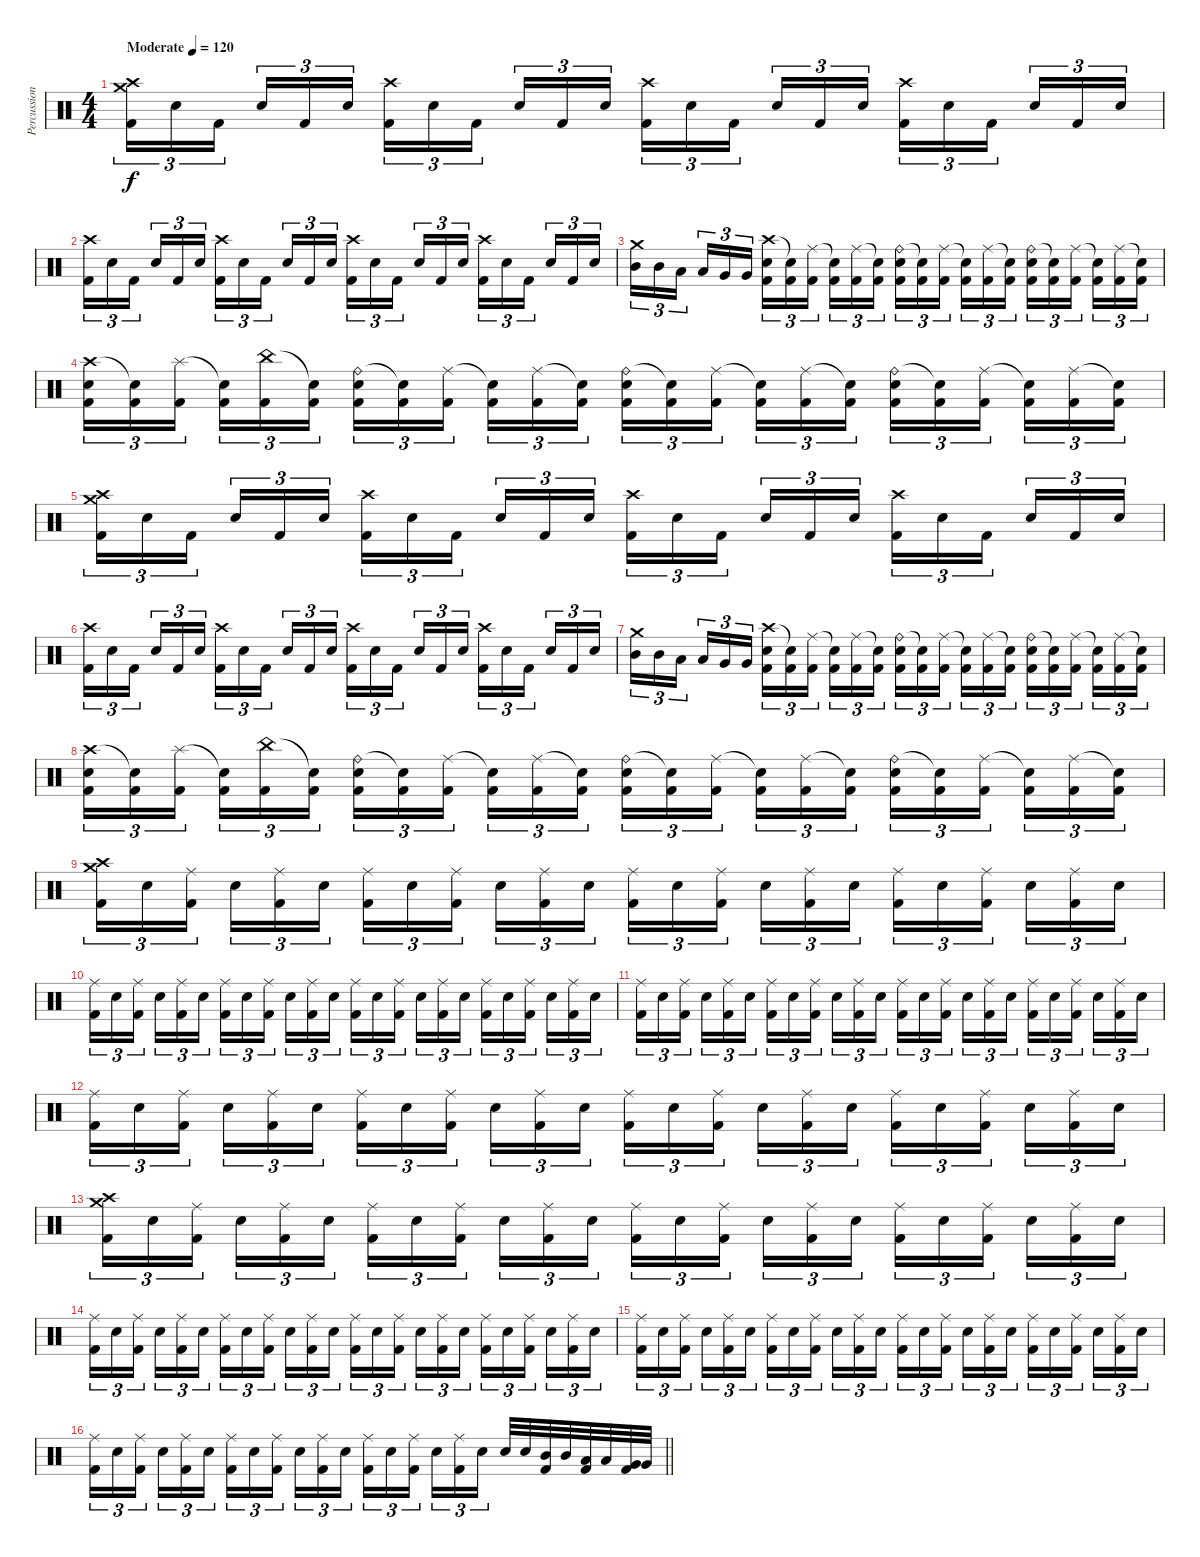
\track ("Percussion" "Percussion") {instrument percussion}
\staff {score}
\articulation defaults
\ts (4 4)
\tempo (120 "Moderate")
\clef neutral
\ks c
("Crash medium (hit)" "Crash high (hit)" "Kick (hit) 2").16{tu (3 2) dy f} "Electric Snare (hit)".16{tu (3 2)} "Kick (hit) 2".16{tu (3 2) beam splitsecondary} "Electric Snare (hit)".16{tu (3 2)} "Kick (hit) 2".16{tu (3 2)} "Electric Snare (hit)".16{tu (3 2)} ("Crash high (hit)" "Kick (hit) 2").16{tu (3 2)} "Electric Snare (hit)".16{tu (3 2)} "Kick (hit) 2".16{tu (3 2) beam splitsecondary} "Electric Snare (hit)".16{tu (3 2)} "Kick (hit) 2".16{tu (3 2)} "Electric Snare (hit)".16{tu (3 2)} ("Crash high (hit)" "Kick (hit) 2").16{tu (3 2)} "Electric Snare (hit)".16{tu (3 2)} "Kick (hit) 2".16{tu (3 2) beam splitsecondary} "Electric Snare (hit)".16{tu (3 2)} "Kick (hit) 2".16{tu (3 2)} "Electric Snare (hit)".16{tu (3 2)} ("Crash high (hit)" "Kick (hit) 2").16{tu (3 2)} "Electric Snare (hit)".16{tu (3 2)} "Kick (hit) 2".16{tu (3 2) beam splitsecondary} "Electric Snare (hit)".16{tu (3 2)} "Kick (hit) 2".16{tu (3 2)} "Electric Snare (hit)".16{tu (3 2)} |
("Crash high (hit)" "Kick (hit) 2").16{tu (3 2)} "Electric Snare (hit)".16{tu (3 2)} "Kick (hit) 2".16{tu (3 2) beam splitsecondary} "Electric Snare (hit)".16{tu (3 2)} "Kick (hit) 2".16{tu (3 2)} "Electric Snare (hit)".16{tu (3 2)} ("Crash high (hit)" "Kick (hit) 2").16{tu (3 2)} "Electric Snare (hit)".16{tu (3 2)} "Kick (hit) 2".16{tu (3 2) beam splitsecondary} "Electric Snare (hit)".16{tu (3 2)} "Kick (hit) 2".16{tu (3 2)} "Electric Snare (hit)".16{tu (3 2)} ("Crash high (hit)" "Kick (hit) 2").16{tu (3 2)} "Electric Snare (hit)".16{tu (3 2)} "Kick (hit) 2".16{tu (3 2) beam splitsecondary} "Electric Snare (hit)".16{tu (3 2)} "Kick (hit) 2".16{tu (3 2)} "Electric Snare (hit)".16{tu (3 2)} ("Crash high (hit)" "Kick (hit) 2").16{tu (3 2)} "Electric Snare (hit)".16{tu (3 2)} "Kick (hit) 2".16{tu (3 2) beam splitsecondary} "Electric Snare (hit)".16{tu (3 2)} "Kick (hit) 2".16{tu (3 2)} "Electric Snare (hit)".16{tu (3 2)} |
("Crash medium (hit)" "Mid Tom (hit)").16{tu (3 2)} "Mid Tom (hit)".16{tu (3 2)} "Low Tom (hit)".16{tu (3 2) beam splitsecondary} "Low Tom (hit)".16{tu (3 2)} "Very Low Tom (hit)".16{tu (3 2)} "Very Low Tom (hit)".16{tu (3 2)} ("Crash high (hit)" "Electric Snare (hit)" "Kick (hit) 2").16{tu (3 2)} ("Snare (hit)"{t} "Kick (hit) 2").16{tu (3 2)} ("Ride (middle)" "Kick (hit) 2").16{tu (3 2) beam splitsecondary} ("Snare (hit)"{t} "Kick (hit) 2").16{tu (3 2)} ("Ride (middle)" "Kick (hit) 2").16{tu (3 2)} ("Snare (hit)"{t} "Kick (hit) 2").16{tu (3 2)} ("Ride (bell)" "Electric Snare (hit)" "Kick (hit) 2").16{tu (3 2)} ("Snare (hit)"{t} "Kick (hit) 2").16{tu (3 2)} ("Ride (middle)" "Kick (hit) 2").16{tu (3 2) beam splitsecondary} ("Snare (hit)"{t} "Kick (hit) 2").16{tu (3 2)} ("Ride (middle)" "Kick (hit) 2").16{tu (3 2)} ("Snare (hit)"{t} "Kick (hit) 2").16{tu (3 2)} ("Ride (bell)" "Electric Snare (hit)" "Kick (hit) 2").16{tu (3 2)} ("Snare (hit)"{t} "Kick (hit) 2").16{tu (3 2)} ("Ride (middle)" "Kick (hit) 2").16{tu (3 2) beam splitsecondary} ("Snare (hit)"{t} "Kick (hit) 2").16{tu (3 2)} ("Ride (middle)" "Kick (hit) 2").16{tu (3 2)} ("Snare (hit)"{t} "Kick (hit) 2").16{tu (3 2)} |
("Crash high (hit)" "Electric Snare (hit)" "Kick (hit) 2").16{tu (3 2)} ("Snare (hit)"{t} "Kick (hit) 2").16{tu (3 2)} ("Splash (hit)" "Kick (hit) 2").16{tu (3 2) beam splitsecondary} ("Snare (hit)"{t} "Kick (hit) 2").16{tu (3 2)} ("China (hit)" "Kick (hit) 2").16{tu (3 2)} ("Snare (hit)"{t} "Kick (hit) 2").16{tu (3 2)} ("Ride (bell)" "Electric Snare (hit)" "Kick (hit) 2").16{tu (3 2)} ("Snare (hit)"{t} "Kick (hit) 2").16{tu (3 2)} ("Ride (middle)" "Kick (hit) 2").16{tu (3 2) beam splitsecondary} ("Snare (hit)"{t} "Kick (hit) 2").16{tu (3 2)} ("Ride (middle)" "Kick (hit) 2").16{tu (3 2)} ("Snare (hit)"{t} "Kick (hit) 2").16{tu (3 2)} ("Ride (bell)" "Electric Snare (hit)" "Kick (hit) 2").16{tu (3 2)} ("Snare (hit)"{t} "Kick (hit) 2").16{tu (3 2)} ("Ride (middle)" "Kick (hit) 2").16{tu (3 2) beam splitsecondary} ("Snare (hit)"{t} "Kick (hit) 2").16{tu (3 2)} ("Ride (middle)" "Kick (hit) 2").16{tu (3 2)} ("Snare (hit)"{t} "Kick (hit) 2").16{tu (3 2)} ("Ride (bell)" "Electric Snare (hit)" "Kick (hit) 2").16{tu (3 2)} ("Snare (hit)"{t} "Kick (hit) 2").16{tu (3 2)} ("Ride (middle)" "Kick (hit) 2").16{tu (3 2) beam splitsecondary} ("Snare (hit)"{t} "Kick (hit) 2").16{tu (3 2)} ("Ride (middle)" "Kick (hit) 2").16{tu (3 2)} ("Snare (hit)"{t} "Kick (hit) 2").16{tu (3 2)} |
("Crash medium (hit)" "Crash high (hit)" "Kick (hit) 2").16{tu (3 2)} "Electric Snare (hit)".16{tu (3 2)} "Kick (hit) 2".16{tu (3 2) beam splitsecondary} "Electric Snare (hit)".16{tu (3 2)} "Kick (hit) 2".16{tu (3 2)} "Electric Snare (hit)".16{tu (3 2)} ("Crash high (hit)" "Kick (hit) 2").16{tu (3 2)} "Electric Snare (hit)".16{tu (3 2)} "Kick (hit) 2".16{tu (3 2) beam splitsecondary} "Electric Snare (hit)".16{tu (3 2)} "Kick (hit) 2".16{tu (3 2)} "Electric Snare (hit)".16{tu (3 2)} ("Crash high (hit)" "Kick (hit) 2").16{tu (3 2)} "Electric Snare (hit)".16{tu (3 2)} "Kick (hit) 2".16{tu (3 2) beam splitsecondary} "Electric Snare (hit)".16{tu (3 2)} "Kick (hit) 2".16{tu (3 2)} "Electric Snare (hit)".16{tu (3 2)} ("Crash high (hit)" "Kick (hit) 2").16{tu (3 2)} "Electric Snare (hit)".16{tu (3 2)} "Kick (hit) 2".16{tu (3 2) beam splitsecondary} "Electric Snare (hit)".16{tu (3 2)} "Kick (hit) 2".16{tu (3 2)} "Electric Snare (hit)".16{tu (3 2)} |
("Crash high (hit)" "Kick (hit) 2").16{tu (3 2)} "Electric Snare (hit)".16{tu (3 2)} "Kick (hit) 2".16{tu (3 2) beam splitsecondary} "Electric Snare (hit)".16{tu (3 2)} "Kick (hit) 2".16{tu (3 2)} "Electric Snare (hit)".16{tu (3 2)} ("Crash high (hit)" "Kick (hit) 2").16{tu (3 2)} "Electric Snare (hit)".16{tu (3 2)} "Kick (hit) 2".16{tu (3 2) beam splitsecondary} "Electric Snare (hit)".16{tu (3 2)} "Kick (hit) 2".16{tu (3 2)} "Electric Snare (hit)".16{tu (3 2)} ("Crash high (hit)" "Kick (hit) 2").16{tu (3 2)} "Electric Snare (hit)".16{tu (3 2)} "Kick (hit) 2".16{tu (3 2) beam splitsecondary} "Electric Snare (hit)".16{tu (3 2)} "Kick (hit) 2".16{tu (3 2)} "Electric Snare (hit)".16{tu (3 2)} ("Crash high (hit)" "Kick (hit) 2").16{tu (3 2)} "Electric Snare (hit)".16{tu (3 2)} "Kick (hit) 2".16{tu (3 2) beam splitsecondary} "Electric Snare (hit)".16{tu (3 2)} "Kick (hit) 2".16{tu (3 2)} "Electric Snare (hit)".16{tu (3 2)} |
("Crash medium (hit)" "Mid Tom (hit)").16{tu (3 2)} "Mid Tom (hit)".16{tu (3 2)} "Low Tom (hit)".16{tu (3 2) beam splitsecondary} "Low Tom (hit)".16{tu (3 2)} "Very Low Tom (hit)".16{tu (3 2)} "Very Low Tom (hit)".16{tu (3 2)} ("Crash high (hit)" "Electric Snare (hit)" "Kick (hit) 2").16{tu (3 2)} ("Snare (hit)"{t} "Kick (hit) 2").16{tu (3 2)} ("Ride (middle)" "Kick (hit) 2").16{tu (3 2) beam splitsecondary} ("Snare (hit)"{t} "Kick (hit) 2").16{tu (3 2)} ("Ride (middle)" "Kick (hit) 2").16{tu (3 2)} ("Snare (hit)"{t} "Kick (hit) 2").16{tu (3 2)} ("Ride (bell)" "Electric Snare (hit)" "Kick (hit) 2").16{tu (3 2)} ("Snare (hit)"{t} "Kick (hit) 2").16{tu (3 2)} ("Ride (middle)" "Kick (hit) 2").16{tu (3 2) beam splitsecondary} ("Snare (hit)"{t} "Kick (hit) 2").16{tu (3 2)} ("Ride (middle)" "Kick (hit) 2").16{tu (3 2)} ("Snare (hit)"{t} "Kick (hit) 2").16{tu (3 2)} ("Ride (bell)" "Electric Snare (hit)" "Kick (hit) 2").16{tu (3 2)} ("Snare (hit)"{t} "Kick (hit) 2").16{tu (3 2)} ("Ride (middle)" "Kick (hit) 2").16{tu (3 2) beam splitsecondary} ("Snare (hit)"{t} "Kick (hit) 2").16{tu (3 2)} ("Ride (middle)" "Kick (hit) 2").16{tu (3 2)} ("Snare (hit)"{t} "Kick (hit) 2").16{tu (3 2)} |
("Crash high (hit)" "Electric Snare (hit)" "Kick (hit) 2").16{tu (3 2)} ("Snare (hit)"{t} "Kick (hit) 2").16{tu (3 2)} ("Splash (hit)" "Kick (hit) 2").16{tu (3 2) beam splitsecondary} ("Snare (hit)"{t} "Kick (hit) 2").16{tu (3 2)} ("China (hit)" "Kick (hit) 2").16{tu (3 2)} ("Snare (hit)"{t} "Kick (hit) 2").16{tu (3 2)} ("Ride (bell)" "Electric Snare (hit)" "Kick (hit) 2").16{tu (3 2)} ("Snare (hit)"{t} "Kick (hit) 2").16{tu (3 2)} ("Ride (middle)" "Kick (hit) 2").16{tu (3 2) beam splitsecondary} ("Snare (hit)"{t} "Kick (hit) 2").16{tu (3 2)} ("Ride (middle)" "Kick (hit) 2").16{tu (3 2)} ("Snare (hit)"{t} "Kick (hit) 2").16{tu (3 2)} ("Ride (bell)" "Electric Snare (hit)" "Kick (hit) 2").16{tu (3 2)} ("Snare (hit)"{t} "Kick (hit) 2").16{tu (3 2)} ("Ride (middle)" "Kick (hit) 2").16{tu (3 2) beam splitsecondary} ("Snare (hit)"{t} "Kick (hit) 2").16{tu (3 2)} ("Ride (middle)" "Kick (hit) 2").16{tu (3 2)} ("Snare (hit)"{t} "Kick (hit) 2").16{tu (3 2)} ("Ride (bell)" "Electric Snare (hit)" "Kick (hit) 2").16{tu (3 2)} ("Snare (hit)"{t} "Kick (hit) 2").16{tu (3 2)} ("Ride (middle)" "Kick (hit) 2").16{tu (3 2) beam splitsecondary} ("Snare (hit)"{t} "Kick (hit) 2").16{tu (3 2)} ("Ride (middle)" "Kick (hit) 2").16{tu (3 2)} ("Snare (hit)"{t} "Kick (hit) 2").16{tu (3 2)} |
("Crash medium (hit)" "Crash high (hit)" "Kick (hit) 2").16{tu (3 2)} "Electric Snare (hit)".16{tu (3 2)} ("Ride (middle)" "Kick (hit) 2").16{tu (3 2) beam splitsecondary} "Electric Snare (hit)".16{tu (3 2)} ("Ride (middle)" "Kick (hit) 2").16{tu (3 2)} "Electric Snare (hit)".16{tu (3 2)} ("Ride (middle)" "Kick (hit) 2").16{tu (3 2)} "Electric Snare (hit)".16{tu (3 2)} ("Ride (middle)" "Kick (hit) 2").16{tu (3 2) beam splitsecondary} "Electric Snare (hit)".16{tu (3 2)} ("Ride (middle)" "Kick (hit) 2").16{tu (3 2)} "Electric Snare (hit)".16{tu (3 2)} ("Ride (middle)" "Kick (hit) 2").16{tu (3 2)} "Electric Snare (hit)".16{tu (3 2)} ("Ride (middle)" "Kick (hit) 2").16{tu (3 2) beam splitsecondary} "Electric Snare (hit)".16{tu (3 2)} ("Ride (middle)" "Kick (hit) 2").16{tu (3 2)} "Electric Snare (hit)".16{tu (3 2)} ("Ride (middle)" "Kick (hit) 2").16{tu (3 2)} "Electric Snare (hit)".16{tu (3 2)} ("Ride (middle)" "Kick (hit) 2").16{tu (3 2) beam splitsecondary} "Electric Snare (hit)".16{tu (3 2)} ("Ride (middle)" "Kick (hit) 2").16{tu (3 2)} "Electric Snare (hit)".16{tu (3 2)} |
("Ride (middle)" "Kick (hit) 2").16{tu (3 2)} "Electric Snare (hit)".16{tu (3 2)} ("Ride (middle)" "Kick (hit) 2").16{tu (3 2) beam splitsecondary} "Electric Snare (hit)".16{tu (3 2)} ("Ride (middle)" "Kick (hit) 2").16{tu (3 2)} "Electric Snare (hit)".16{tu (3 2)} ("Ride (middle)" "Kick (hit) 2").16{tu (3 2)} "Electric Snare (hit)".16{tu (3 2)} ("Ride (middle)" "Kick (hit) 2").16{tu (3 2) beam splitsecondary} "Electric Snare (hit)".16{tu (3 2)} ("Ride (middle)" "Kick (hit) 2").16{tu (3 2)} "Electric Snare (hit)".16{tu (3 2)} ("Ride (middle)" "Kick (hit) 2").16{tu (3 2)} "Electric Snare (hit)".16{tu (3 2)} ("Ride (middle)" "Kick (hit) 2").16{tu (3 2) beam splitsecondary} "Electric Snare (hit)".16{tu (3 2)} ("Ride (middle)" "Kick (hit) 2").16{tu (3 2)} "Electric Snare (hit)".16{tu (3 2)} ("Ride (middle)" "Kick (hit) 2").16{tu (3 2)} "Electric Snare (hit)".16{tu (3 2)} ("Ride (middle)" "Kick (hit) 2").16{tu (3 2) beam splitsecondary} "Electric Snare (hit)".16{tu (3 2)} ("Ride (middle)" "Kick (hit) 2").16{tu (3 2)} "Electric Snare (hit)".16{tu (3 2)} |
("Ride (middle)" "Kick (hit) 2").16{tu (3 2)} "Electric Snare (hit)".16{tu (3 2)} ("Ride (middle)" "Kick (hit) 2").16{tu (3 2) beam splitsecondary} "Electric Snare (hit)".16{tu (3 2)} ("Ride (middle)" "Kick (hit) 2").16{tu (3 2)} "Electric Snare (hit)".16{tu (3 2)} ("Ride (middle)" "Kick (hit) 2").16{tu (3 2)} "Electric Snare (hit)".16{tu (3 2)} ("Ride (middle)" "Kick (hit) 2").16{tu (3 2) beam splitsecondary} "Electric Snare (hit)".16{tu (3 2)} ("Ride (middle)" "Kick (hit) 2").16{tu (3 2)} "Electric Snare (hit)".16{tu (3 2)} ("Ride (middle)" "Kick (hit) 2").16{tu (3 2)} "Electric Snare (hit)".16{tu (3 2)} ("Ride (middle)" "Kick (hit) 2").16{tu (3 2) beam splitsecondary} "Electric Snare (hit)".16{tu (3 2)} ("Ride (middle)" "Kick (hit) 2").16{tu (3 2)} "Electric Snare (hit)".16{tu (3 2)} ("Ride (middle)" "Kick (hit) 2").16{tu (3 2)} "Electric Snare (hit)".16{tu (3 2)} ("Ride (middle)" "Kick (hit) 2").16{tu (3 2) beam splitsecondary} "Electric Snare (hit)".16{tu (3 2)} ("Ride (middle)" "Kick (hit) 2").16{tu (3 2)} "Electric Snare (hit)".16{tu (3 2)} |
("Ride (middle)" "Kick (hit) 2").16{tu (3 2)} "Electric Snare (hit)".16{tu (3 2)} ("Ride (middle)" "Kick (hit) 2").16{tu (3 2) beam splitsecondary} "Electric Snare (hit)".16{tu (3 2)} ("Ride (middle)" "Kick (hit) 2").16{tu (3 2)} "Electric Snare (hit)".16{tu (3 2)} ("Ride (middle)" "Kick (hit) 2").16{tu (3 2)} "Electric Snare (hit)".16{tu (3 2)} ("Ride (middle)" "Kick (hit) 2").16{tu (3 2) beam splitsecondary} "Electric Snare (hit)".16{tu (3 2)} ("Ride (middle)" "Kick (hit) 2").16{tu (3 2)} "Electric Snare (hit)".16{tu (3 2)} ("Ride (middle)" "Kick (hit) 2").16{tu (3 2)} "Electric Snare (hit)".16{tu (3 2)} ("Ride (middle)" "Kick (hit) 2").16{tu (3 2) beam splitsecondary} "Electric Snare (hit)".16{tu (3 2)} ("Ride (middle)" "Kick (hit) 2").16{tu (3 2)} "Electric Snare (hit)".16{tu (3 2)} ("Ride (middle)" "Kick (hit) 2").16{tu (3 2)} "Electric Snare (hit)".16{tu (3 2)} ("Ride (middle)" "Kick (hit) 2").16{tu (3 2) beam splitsecondary} "Electric Snare (hit)".16{tu (3 2)} ("Ride (middle)" "Kick (hit) 2").16{tu (3 2)} "Electric Snare (hit)".16{tu (3 2)} |
("Crash medium (hit)" "Crash high (hit)" "Kick (hit) 2").16{tu (3 2)} "Electric Snare (hit)".16{tu (3 2)} ("Ride (middle)" "Kick (hit) 2").16{tu (3 2) beam splitsecondary} "Electric Snare (hit)".16{tu (3 2)} ("Ride (middle)" "Kick (hit) 2").16{tu (3 2)} "Electric Snare (hit)".16{tu (3 2)} ("Ride (middle)" "Kick (hit) 2").16{tu (3 2)} "Electric Snare (hit)".16{tu (3 2)} ("Ride (middle)" "Kick (hit) 2").16{tu (3 2) beam splitsecondary} "Electric Snare (hit)".16{tu (3 2)} ("Ride (middle)" "Kick (hit) 2").16{tu (3 2)} "Electric Snare (hit)".16{tu (3 2)} ("Ride (middle)" "Kick (hit) 2").16{tu (3 2)} "Electric Snare (hit)".16{tu (3 2)} ("Ride (middle)" "Kick (hit) 2").16{tu (3 2) beam splitsecondary} "Electric Snare (hit)".16{tu (3 2)} ("Ride (middle)" "Kick (hit) 2").16{tu (3 2)} "Electric Snare (hit)".16{tu (3 2)} ("Ride (middle)" "Kick (hit) 2").16{tu (3 2)} "Electric Snare (hit)".16{tu (3 2)} ("Ride (middle)" "Kick (hit) 2").16{tu (3 2) beam splitsecondary} "Electric Snare (hit)".16{tu (3 2)} ("Ride (middle)" "Kick (hit) 2").16{tu (3 2)} "Electric Snare (hit)".16{tu (3 2)} |
("Ride (middle)" "Kick (hit) 2").16{tu (3 2)} "Electric Snare (hit)".16{tu (3 2)} ("Ride (middle)" "Kick (hit) 2").16{tu (3 2) beam splitsecondary} "Electric Snare (hit)".16{tu (3 2)} ("Ride (middle)" "Kick (hit) 2").16{tu (3 2)} "Electric Snare (hit)".16{tu (3 2)} ("Ride (middle)" "Kick (hit) 2").16{tu (3 2)} "Electric Snare (hit)".16{tu (3 2)} ("Ride (middle)" "Kick (hit) 2").16{tu (3 2) beam splitsecondary} "Electric Snare (hit)".16{tu (3 2)} ("Ride (middle)" "Kick (hit) 2").16{tu (3 2)} "Electric Snare (hit)".16{tu (3 2)} ("Ride (middle)" "Kick (hit) 2").16{tu (3 2)} "Electric Snare (hit)".16{tu (3 2)} ("Ride (middle)" "Kick (hit) 2").16{tu (3 2) beam splitsecondary} "Electric Snare (hit)".16{tu (3 2)} ("Ride (middle)" "Kick (hit) 2").16{tu (3 2)} "Electric Snare (hit)".16{tu (3 2)} ("Ride (middle)" "Kick (hit) 2").16{tu (3 2)} "Electric Snare (hit)".16{tu (3 2)} ("Ride (middle)" "Kick (hit) 2").16{tu (3 2) beam splitsecondary} "Electric Snare (hit)".16{tu (3 2)} ("Ride (middle)" "Kick (hit) 2").16{tu (3 2)} "Electric Snare (hit)".16{tu (3 2)} |
("Ride (middle)" "Kick (hit) 2").16{tu (3 2)} "Electric Snare (hit)".16{tu (3 2)} ("Ride (middle)" "Kick (hit) 2").16{tu (3 2) beam splitsecondary} "Electric Snare (hit)".16{tu (3 2)} ("Ride (middle)" "Kick (hit) 2").16{tu (3 2)} "Electric Snare (hit)".16{tu (3 2)} ("Ride (middle)" "Kick (hit) 2").16{tu (3 2)} "Electric Snare (hit)".16{tu (3 2)} ("Ride (middle)" "Kick (hit) 2").16{tu (3 2) beam splitsecondary} "Electric Snare (hit)".16{tu (3 2)} ("Ride (middle)" "Kick (hit) 2").16{tu (3 2)} "Electric Snare (hit)".16{tu (3 2)} ("Ride (middle)" "Kick (hit) 2").16{tu (3 2)} "Electric Snare (hit)".16{tu (3 2)} ("Ride (middle)" "Kick (hit) 2").16{tu (3 2) beam splitsecondary} "Electric Snare (hit)".16{tu (3 2)} ("Ride (middle)" "Kick (hit) 2").16{tu (3 2)} "Electric Snare (hit)".16{tu (3 2)} ("Ride (middle)" "Kick (hit) 2").16{tu (3 2)} "Electric Snare (hit)".16{tu (3 2)} ("Ride (middle)" "Kick (hit) 2").16{tu (3 2) beam splitsecondary} "Electric Snare (hit)".16{tu (3 2)} ("Ride (middle)" "Kick (hit) 2").16{tu (3 2)} "Electric Snare (hit)".16{tu (3 2)} |
\barLineRight lightlight
("Ride (middle)" "Kick (hit) 2").16{tu (3 2)} "Electric Snare (hit)".16{tu (3 2)} ("Ride (middle)" "Kick (hit) 2").16{tu (3 2) beam splitsecondary} "Electric Snare (hit)".16{tu (3 2)} ("Ride (middle)" "Kick (hit) 2").16{tu (3 2)} "Electric Snare (hit)".16{tu (3 2)} ("Ride (middle)" "Kick (hit) 2").16{tu (3 2)} "Electric Snare (hit)".16{tu (3 2)} ("Ride (middle)" "Kick (hit) 2").16{tu (3 2) beam splitsecondary} "Electric Snare (hit)".16{tu (3 2)} ("Ride (middle)" "Kick (hit) 2").16{tu (3 2)} "Electric Snare (hit)".16{tu (3 2)} ("Ride (middle)" "Kick (hit) 2").16{tu (3 2)} "Electric Snare (hit)".16{tu (3 2)} ("Ride (middle)" "Kick (hit) 2").16{tu (3 2) beam splitsecondary} "Electric Snare (hit)".16{tu (3 2)} ("Ride (middle)" "Kick (hit) 2").16{tu (3 2)} "Electric Snare (hit)".16{tu (3 2)} "Electric Snare (hit)".32 "Electric Snare (hit)".32 ("Mid Tom (hit)" "Kick (hit) 2").32 "Mid Tom (hit)".32 ("Low Tom (hit)" "Kick (hit) 2").32 "Low Tom (hit)".32 ("Very Low Tom (hit)" "Kick (hit) 2").32 "Very Low Tom (hit)".32
